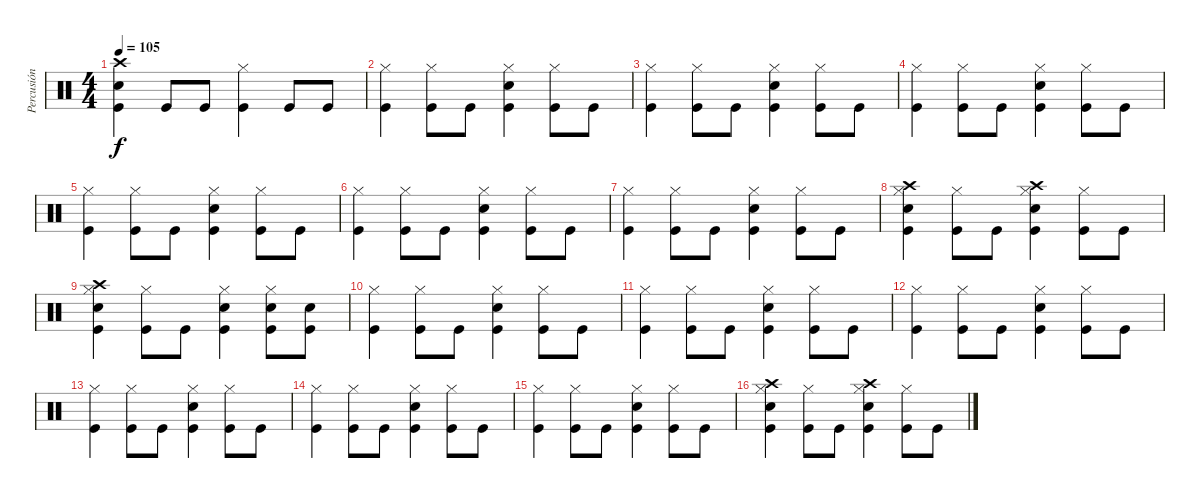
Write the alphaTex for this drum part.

\track ("Percusión" "Percusión") {instrument percussion}
\staff {score}
\articulation defaults
\ts (4 4)
\tempo 105
\clef neutral
\ks c
("Crash high (hit)" "Snare (hit) 2" "Kick (hit)").4{dy f} "Kick (hit)".8 "Kick (hit)".8 ("Hi-Hat (closed)" "Kick (hit)").4 "Kick (hit)".8 "Kick (hit)".8 |
("Hi-Hat (closed)" "Kick (hit)").4 ("Hi-Hat (closed)" "Kick (hit)").8 "Kick (hit)".8 ("Hi-Hat (closed)" "Snare (hit) 2" "Kick (hit)").4 ("Hi-Hat (closed)" "Kick (hit)").8 "Kick (hit)".8 |
("Hi-Hat (closed)" "Kick (hit)").4 ("Hi-Hat (closed)" "Kick (hit)").8 "Kick (hit)".8 ("Hi-Hat (closed)" "Snare (hit) 2" "Kick (hit)").4 ("Hi-Hat (closed)" "Kick (hit)").8 "Kick (hit)".8 |
("Hi-Hat (closed)" "Kick (hit)").4 ("Hi-Hat (closed)" "Kick (hit)").8 "Kick (hit)".8 ("Hi-Hat (closed)" "Snare (hit) 2" "Kick (hit)").4 ("Hi-Hat (closed)" "Kick (hit)").8 "Kick (hit)".8 |
("Hi-Hat (closed)" "Kick (hit)").4 ("Hi-Hat (closed)" "Kick (hit)").8 "Kick (hit)".8 ("Hi-Hat (closed)" "Snare (hit) 2" "Kick (hit)").4 ("Hi-Hat (closed)" "Kick (hit)").8 "Kick (hit)".8 |
("Hi-Hat (closed)" "Kick (hit)").4 ("Hi-Hat (closed)" "Kick (hit)").8 "Kick (hit)".8 ("Hi-Hat (closed)" "Snare (hit) 2" "Kick (hit)").4 ("Hi-Hat (closed)" "Kick (hit)").8 "Kick (hit)".8 |
("Hi-Hat (closed)" "Kick (hit)").4 ("Hi-Hat (closed)" "Kick (hit)").8 "Kick (hit)".8 ("Hi-Hat (closed)" "Snare (hit) 2" "Kick (hit)").4 ("Hi-Hat (closed)" "Kick (hit)").8 "Kick (hit)".8 |
("Hi-Hat (closed)" "Crash high (hit)" "Snare (hit) 2" "Kick (hit)").4 ("Hi-Hat (closed)" "Kick (hit)").8 "Kick (hit)".8 ("Hi-Hat (closed)" "Crash high (hit)" "Snare (hit) 2" "Kick (hit)").4 ("Hi-Hat (closed)" "Kick (hit)").8 "Kick (hit)".8 |
("Hi-Hat (closed)" "Crash high (hit)" "Snare (hit) 2" "Kick (hit)").4 ("Hi-Hat (closed)" "Kick (hit)").8 "Kick (hit)".8 ("Hi-Hat (closed)" "Snare (hit) 2" "Kick (hit)").4 ("Hi-Hat (closed)" "Snare (hit) 2" "Kick (hit)").8 ("Snare (hit) 2" "Kick (hit)").8 |
("Hi-Hat (closed)" "Kick (hit)").4 ("Hi-Hat (closed)" "Kick (hit)").8 "Kick (hit)".8 ("Hi-Hat (closed)" "Snare (hit) 2" "Kick (hit)").4 ("Hi-Hat (closed)" "Kick (hit)").8 "Kick (hit)".8 |
("Hi-Hat (closed)" "Kick (hit)").4 ("Hi-Hat (closed)" "Kick (hit)").8 "Kick (hit)".8 ("Hi-Hat (closed)" "Snare (hit) 2" "Kick (hit)").4 ("Hi-Hat (closed)" "Kick (hit)").8 "Kick (hit)".8 |
("Hi-Hat (closed)" "Kick (hit)").4 ("Hi-Hat (closed)" "Kick (hit)").8 "Kick (hit)".8 ("Hi-Hat (closed)" "Snare (hit) 2" "Kick (hit)").4 ("Hi-Hat (closed)" "Kick (hit)").8 "Kick (hit)".8 |
("Hi-Hat (closed)" "Kick (hit)").4 ("Hi-Hat (closed)" "Kick (hit)").8 "Kick (hit)".8 ("Hi-Hat (closed)" "Snare (hit) 2" "Kick (hit)").4 ("Hi-Hat (closed)" "Kick (hit)").8 "Kick (hit)".8 |
("Hi-Hat (closed)" "Kick (hit)").4 ("Hi-Hat (closed)" "Kick (hit)").8 "Kick (hit)".8 ("Hi-Hat (closed)" "Snare (hit) 2" "Kick (hit)").4 ("Hi-Hat (closed)" "Kick (hit)").8 "Kick (hit)".8 |
("Hi-Hat (closed)" "Kick (hit)").4 ("Hi-Hat (closed)" "Kick (hit)").8 "Kick (hit)".8 ("Hi-Hat (closed)" "Snare (hit) 2" "Kick (hit)").4 ("Hi-Hat (closed)" "Kick (hit)").8 "Kick (hit)".8 |
("Hi-Hat (closed)" "Crash high (hit)" "Snare (hit) 2" "Kick (hit)").4 ("Hi-Hat (closed)" "Kick (hit)").8 "Kick (hit)".8 ("Hi-Hat (closed)" "Crash high (hit)" "Snare (hit) 2" "Kick (hit)").4 ("Hi-Hat (closed)" "Kick (hit)").8 "Kick (hit)".8
